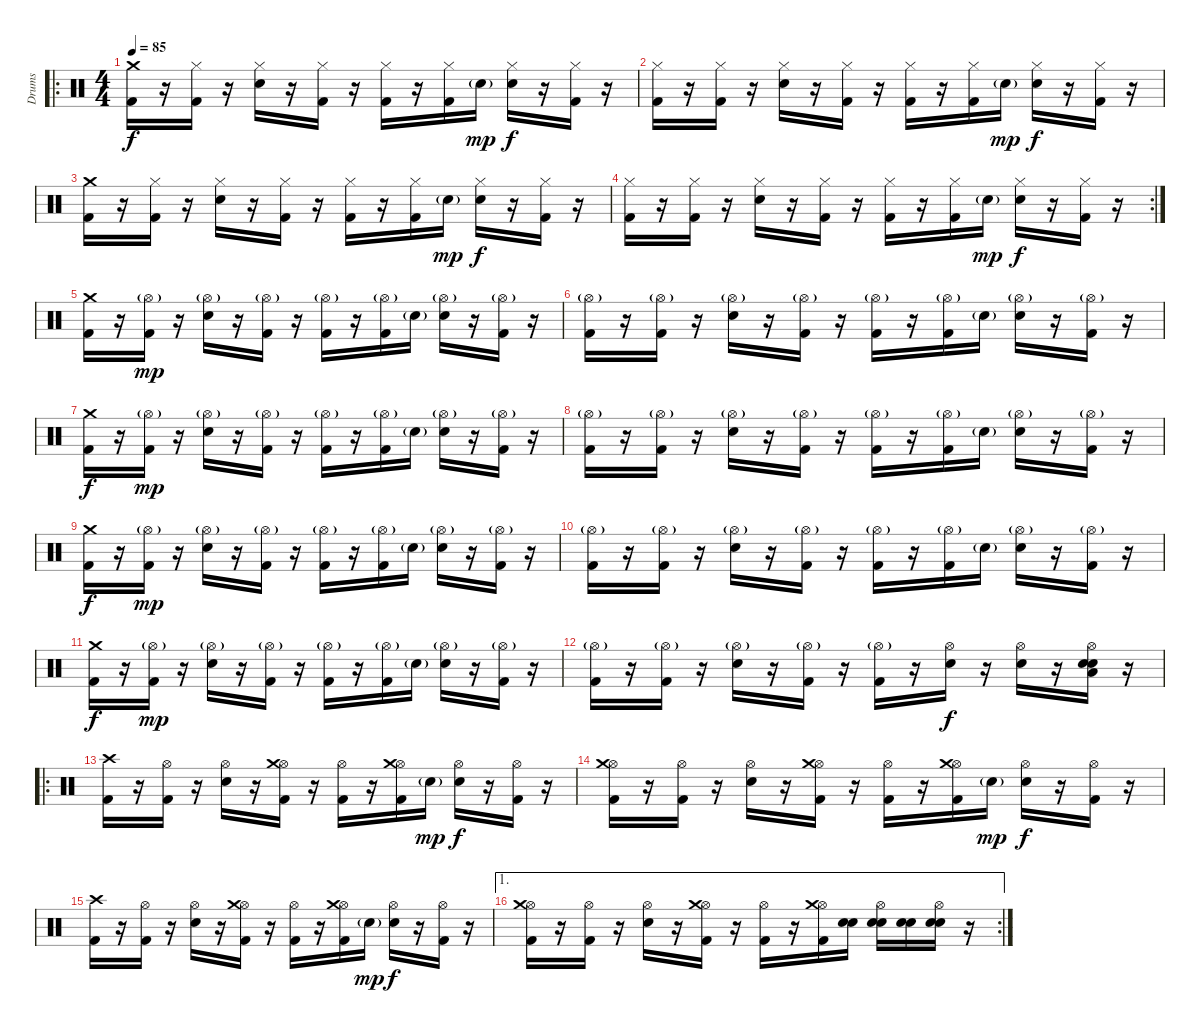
\track ("Drums" "Drums") {instrument percussion}
\staff {score}
\articulation defaults
\ro
\ts (4 4)
\tempo 85
\clef neutral
\ks c
("Crash medium (hit)" "Kick (hit) 2").16{dy f} r.16 ("Hi-Hat (closed)" "Kick (hit) 2").16 r.16 ("Hi-Hat (closed)" "Snare (hit) 2").16 r.16 ("Hi-Hat (closed)" "Kick (hit) 2").16 r.16 ("Hi-Hat (closed)" "Kick (hit) 2").16 r.16 ("Hi-Hat (closed)" "Kick (hit) 2").16 "Snare (hit) 2"{g}.16{dy mp} ("Hi-Hat (closed)" "Snare (hit) 2").16{dy f} r.16 ("Hi-Hat (closed)" "Kick (hit) 2").16 r.16 |
("Hi-Hat (closed)" "Kick (hit) 2").16 r.16 ("Hi-Hat (closed)" "Kick (hit) 2").16 r.16 ("Hi-Hat (closed)" "Snare (hit) 2").16 r.16 ("Hi-Hat (closed)" "Kick (hit) 2").16 r.16 ("Hi-Hat (closed)" "Kick (hit) 2").16 r.16 ("Hi-Hat (closed)" "Kick (hit) 2").16 "Snare (hit) 2"{g}.16{dy mp} ("Hi-Hat (closed)" "Snare (hit) 2").16{dy f} r.16 ("Hi-Hat (closed)" "Kick (hit) 2").16 r.16 |
("Crash medium (hit)" "Kick (hit) 2").16 r.16 ("Hi-Hat (closed)" "Kick (hit) 2").16 r.16 ("Hi-Hat (closed)" "Snare (hit) 2").16 r.16 ("Hi-Hat (closed)" "Kick (hit) 2").16 r.16 ("Hi-Hat (closed)" "Kick (hit) 2").16 r.16 ("Hi-Hat (closed)" "Kick (hit) 2").16 "Snare (hit) 2"{g}.16{dy mp} ("Hi-Hat (closed)" "Snare (hit) 2").16{dy f} r.16 ("Hi-Hat (closed)" "Kick (hit) 2").16 r.16 |
\rc 2
("Hi-Hat (closed)" "Kick (hit) 2").16 r.16 ("Hi-Hat (closed)" "Kick (hit) 2").16 r.16 ("Hi-Hat (closed)" "Snare (hit) 2").16 r.16 ("Hi-Hat (closed)" "Kick (hit) 2").16 r.16 ("Hi-Hat (closed)" "Kick (hit) 2").16 r.16 ("Hi-Hat (closed)" "Kick (hit) 2").16 "Snare (hit) 2"{g}.16{dy mp} ("Hi-Hat (closed)" "Snare (hit) 2").16{dy f} r.16 ("Hi-Hat (closed)" "Kick (hit) 2").16 r.16 |
("Crash medium (hit)" "Kick (hit) 2").16 r.16 ("Hi-Hat (open)"{g} "Kick (hit) 2").16{dy mp} r.16 ("Hi-Hat (open)"{g} "Snare (hit) 2").16 r.16 ("Hi-Hat (open)"{g} "Kick (hit) 2").16 r.16 ("Hi-Hat (open)"{g} "Kick (hit) 2").16 r.16 ("Hi-Hat (open)"{g} "Kick (hit) 2").16 "Snare (hit) 2"{g}.16 ("Hi-Hat (open)"{g} "Snare (hit) 2").16 r.16 ("Hi-Hat (open)"{g} "Kick (hit) 2").16 r.16 |
("Hi-Hat (open)"{g} "Kick (hit) 2").16 r.16 ("Hi-Hat (open)"{g} "Kick (hit) 2").16 r.16 ("Hi-Hat (open)"{g} "Snare (hit) 2").16 r.16 ("Hi-Hat (open)"{g} "Kick (hit) 2").16 r.16 ("Hi-Hat (open)"{g} "Kick (hit) 2").16 r.16 ("Hi-Hat (open)"{g} "Kick (hit) 2").16 "Snare (hit) 2"{g}.16 ("Hi-Hat (open)"{g} "Snare (hit) 2").16 r.16 ("Hi-Hat (open)"{g} "Kick (hit) 2").16 r.16 |
("Crash medium (hit)" "Kick (hit) 2").16{dy f} r.16 ("Hi-Hat (open)"{g} "Kick (hit) 2").16{dy mp} r.16 ("Hi-Hat (open)"{g} "Snare (hit) 2").16 r.16 ("Hi-Hat (open)"{g} "Kick (hit) 2").16 r.16 ("Hi-Hat (open)"{g} "Kick (hit) 2").16 r.16 ("Hi-Hat (open)"{g} "Kick (hit) 2").16 "Snare (hit) 2"{g}.16 ("Hi-Hat (open)"{g} "Snare (hit) 2").16 r.16 ("Hi-Hat (open)"{g} "Kick (hit) 2").16 r.16 |
("Hi-Hat (open)"{g} "Kick (hit) 2").16 r.16 ("Hi-Hat (open)"{g} "Kick (hit) 2").16 r.16 ("Hi-Hat (open)"{g} "Snare (hit) 2").16 r.16 ("Hi-Hat (open)"{g} "Kick (hit) 2").16 r.16 ("Hi-Hat (open)"{g} "Kick (hit) 2").16 r.16 ("Hi-Hat (open)"{g} "Kick (hit) 2").16 "Snare (hit) 2"{g}.16 ("Hi-Hat (open)"{g} "Snare (hit) 2").16 r.16 ("Hi-Hat (open)"{g} "Kick (hit) 2").16 r.16 |
("Crash medium (hit)" "Kick (hit) 2").16{dy f} r.16 ("Hi-Hat (open)"{g} "Kick (hit) 2").16{dy mp} r.16 ("Hi-Hat (open)"{g} "Snare (hit) 2").16 r.16 ("Hi-Hat (open)"{g} "Kick (hit) 2").16 r.16 ("Hi-Hat (open)"{g} "Kick (hit) 2").16 r.16 ("Hi-Hat (open)"{g} "Kick (hit) 2").16 "Snare (hit) 2"{g}.16 ("Hi-Hat (open)"{g} "Snare (hit) 2").16 r.16 ("Hi-Hat (open)"{g} "Kick (hit) 2").16 r.16 |
("Hi-Hat (open)"{g} "Kick (hit) 2").16 r.16 ("Hi-Hat (open)"{g} "Kick (hit) 2").16 r.16 ("Hi-Hat (open)"{g} "Snare (hit) 2").16 r.16 ("Hi-Hat (open)"{g} "Kick (hit) 2").16 r.16 ("Hi-Hat (open)"{g} "Kick (hit) 2").16 r.16 ("Hi-Hat (open)"{g} "Kick (hit) 2").16 "Snare (hit) 2"{g}.16 ("Hi-Hat (open)"{g} "Snare (hit) 2").16 r.16 ("Hi-Hat (open)"{g} "Kick (hit) 2").16 r.16 |
("Crash medium (hit)" "Kick (hit) 2").16{dy f} r.16 ("Hi-Hat (open)"{g} "Kick (hit) 2").16{dy mp} r.16 ("Hi-Hat (open)"{g} "Snare (hit) 2").16 r.16 ("Hi-Hat (open)"{g} "Kick (hit) 2").16 r.16 ("Hi-Hat (open)"{g} "Kick (hit) 2").16 r.16 ("Hi-Hat (open)"{g} "Kick (hit) 2").16 "Snare (hit) 2"{g}.16 ("Hi-Hat (open)"{g} "Snare (hit) 2").16 r.16 ("Hi-Hat (open)"{g} "Kick (hit) 2").16 r.16 |
("Hi-Hat (open)"{g} "Kick (hit) 2").16 r.16 ("Hi-Hat (open)"{g} "Kick (hit) 2").16 r.16 ("Hi-Hat (open)"{g} "Snare (hit) 2").16 r.16 ("Hi-Hat (open)"{g} "Kick (hit) 2").16 r.16 ("Hi-Hat (open)"{g} "Kick (hit) 2").16 r.16 ("Hi-Hat (open)" "Snare (hit) 2").16{dy f} r.16 ("Hi-Hat (open)" "Snare (hit) 2").16 r.16 ("Hi-Hat (open)" "Electric Snare (hit)" "Snare (hit) 2" "Low Floor Tom (hit)").16 r.16 |
\ro
("Crash high (hit)" "Kick (hit) 2").16 r.16 ("Hi-Hat (open)" "Kick (hit) 2").16 r.16 ("Hi-Hat (open)" "Snare (hit) 2").16 r.16 ("Hi-Hat (open)" "Crash medium (hit)" "Kick (hit) 2").16 r.16 ("Hi-Hat (open)" "Kick (hit) 2").16 r.16 ("Hi-Hat (open)" "Crash medium (hit)" "Kick (hit) 2").16 "Snare (hit) 2"{g}.16{dy mp} ("Hi-Hat (open)" "Snare (hit) 2").16{dy f} r.16 ("Hi-Hat (open)" "Kick (hit) 2").16 r.16 |
("Hi-Hat (open)" "Crash medium (hit)" "Kick (hit) 2").16 r.16 ("Hi-Hat (open)" "Kick (hit) 2").16 r.16 ("Hi-Hat (open)" "Snare (hit) 2").16 r.16 ("Hi-Hat (open)" "Crash medium (hit)" "Kick (hit) 2").16 r.16 ("Hi-Hat (open)" "Kick (hit) 2").16 r.16 ("Hi-Hat (open)" "Crash medium (hit)" "Kick (hit) 2").16 "Snare (hit) 2"{g}.16{dy mp} ("Hi-Hat (open)" "Snare (hit) 2").16{dy f} r.16 ("Hi-Hat (open)" "Kick (hit) 2").16 r.16 |
("Crash high (hit)" "Kick (hit) 2").16 r.16 ("Hi-Hat (open)" "Kick (hit) 2").16 r.16 ("Hi-Hat (open)" "Snare (hit) 2").16 r.16 ("Hi-Hat (open)" "Crash medium (hit)" "Kick (hit) 2").16 r.16 ("Hi-Hat (open)" "Kick (hit) 2").16 r.16 ("Hi-Hat (open)" "Crash medium (hit)" "Kick (hit) 2").16 "Snare (hit) 2"{g}.16{dy mp} ("Hi-Hat (open)" "Snare (hit) 2").16{dy f} r.16 ("Hi-Hat (open)" "Kick (hit) 2").16 r.16 |
\ae 1
\rc 2
("Hi-Hat (open)" "Crash medium (hit)" "Kick (hit) 2").16 r.16 ("Hi-Hat (open)" "Kick (hit) 2").16 r.16 ("Hi-Hat (open)" "Snare (hit) 2").16 r.16 ("Hi-Hat (open)" "Crash medium (hit)" "Kick (hit) 2").16 r.16 ("Hi-Hat (open)" "Kick (hit) 2").16 r.16 ("Hi-Hat (open)" "Crash medium (hit)" "Kick (hit) 2").16 ("Electric Snare (hit)" "Snare (hit) 2").16 ("Hi-Hat (open)" "Electric Snare (hit)" "Snare (hit) 2").16 ("Electric Snare (hit)" "Snare (hit) 2").16 ("Hi-Hat (open)" "Electric Snare (hit)" "Snare (hit) 2").16 r.16
